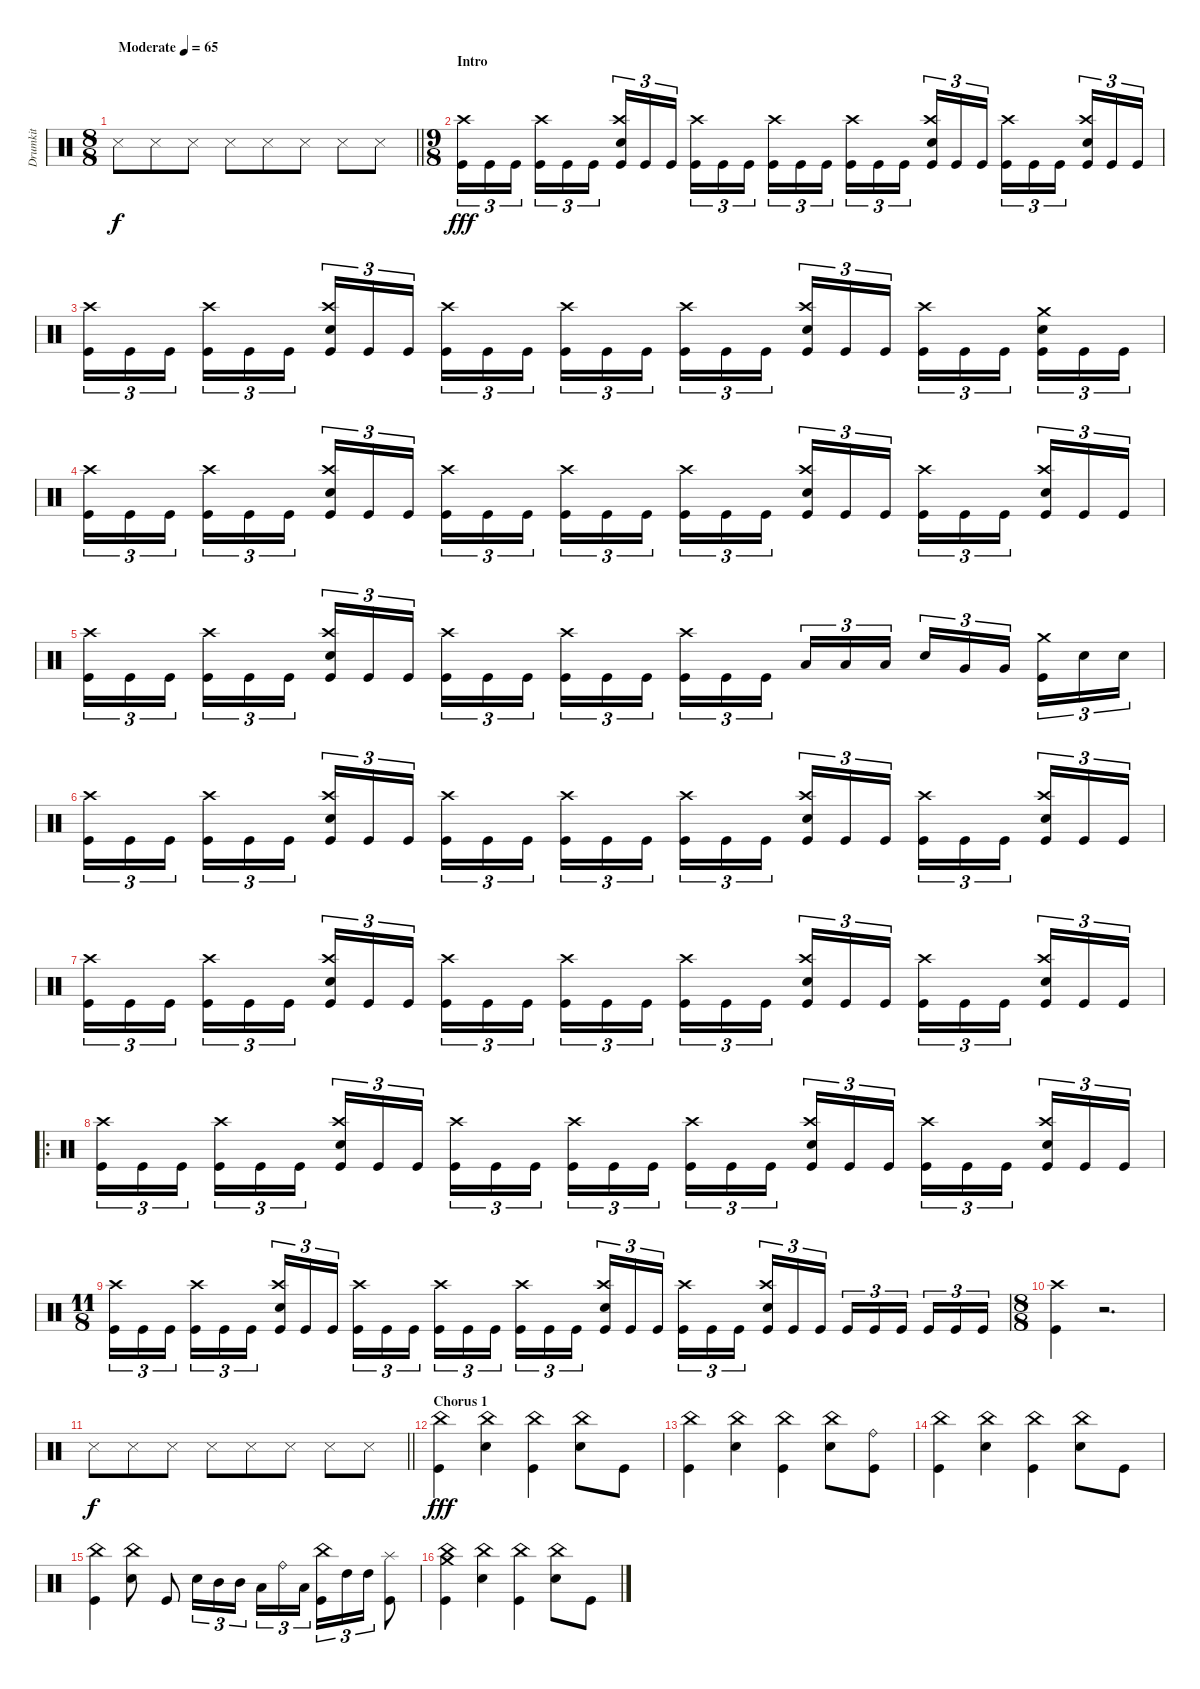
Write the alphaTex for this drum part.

\track ("Drumkit" "Drumkit") {instrument percussion}
\staff {score}
\articulation defaults
\ts (8 8)
\tempo (65 "Moderate")
\clef neutral
\barLineRight lightlight
\ks c "Snare (side stick) 3".8{dy f} "Snare (side stick) 3".8 "Snare (side stick) 3".8 "Snare (side stick) 3".8 "Snare (side stick) 3".8 "Snare (side stick) 3".8 "Snare (side stick) 3".8 "Snare (side stick) 3".8
|
\ts (9 8)
\section ("" "Intro")
("Kick (hit)" "Crash high (hit)").16{tu (3 2) dy fff} "Kick (hit)".16{tu (3 2)} "Kick (hit)".16{tu (3 2) beam splitsecondary} ("Kick (hit)" "Crash high (hit)").16{tu (3 2)} "Kick (hit)".16{tu (3 2)} "Kick (hit)".16{tu (3 2) beam splitsecondary} ("Kick (hit)" "Crash high (hit)" "Snare (hit) 2").16{tu (3 2)} "Kick (hit)".16{tu (3 2)} "Kick (hit)".16{tu (3 2)} ("Kick (hit)" "Crash high (hit)").16{tu (3 2)} "Kick (hit)".16{tu (3 2)} "Kick (hit)".16{tu (3 2) beam splitsecondary} ("Kick (hit)" "Crash high (hit)").16{tu (3 2)} "Kick (hit)".16{tu (3 2)} "Kick (hit)".16{tu (3 2) beam splitsecondary} ("Kick (hit)" "Crash high (hit)").16{tu (3 2)} "Kick (hit)".16{tu (3 2)} "Kick (hit)".16{tu (3 2)} ("Kick (hit)" "Crash high (hit)" "Snare (hit) 2").16{tu (3 2)} "Kick (hit)".16{tu (3 2)} "Kick (hit)".16{tu (3 2) beam splitsecondary} ("Kick (hit)" "Crash high (hit)").16{tu (3 2)} "Kick (hit)".16{tu (3 2)} "Kick (hit)".16{tu (3 2) beam splitsecondary} ("Kick (hit)" "Crash high (hit)" "Snare (hit) 2").16{tu (3 2)} "Kick (hit)".16{tu (3 2)} "Kick (hit)".16{tu (3 2)} |
("Kick (hit)" "Crash high (hit)").16{tu (3 2)} "Kick (hit)".16{tu (3 2)} "Kick (hit)".16{tu (3 2) beam splitsecondary} ("Kick (hit)" "Crash high (hit)").16{tu (3 2)} "Kick (hit)".16{tu (3 2)} "Kick (hit)".16{tu (3 2) beam splitsecondary} ("Kick (hit)" "Crash high (hit)" "Snare (hit) 2").16{tu (3 2)} "Kick (hit)".16{tu (3 2)} "Kick (hit)".16{tu (3 2)} ("Kick (hit)" "Crash high (hit)").16{tu (3 2)} "Kick (hit)".16{tu (3 2)} "Kick (hit)".16{tu (3 2) beam splitsecondary} ("Kick (hit)" "Crash high (hit)").16{tu (3 2)} "Kick (hit)".16{tu (3 2)} "Kick (hit)".16{tu (3 2) beam splitsecondary} ("Kick (hit)" "Crash high (hit)").16{tu (3 2)} "Kick (hit)".16{tu (3 2)} "Kick (hit)".16{tu (3 2)} ("Kick (hit)" "Crash high (hit)" "Snare (hit) 2").16{tu (3 2)} "Kick (hit)".16{tu (3 2)} "Kick (hit)".16{tu (3 2) beam splitsecondary} ("Kick (hit)" "Crash high (hit)").16{tu (3 2)} "Kick (hit)".16{tu (3 2)} "Kick (hit)".16{tu (3 2) beam splitsecondary} ("Kick (hit)" "Snare (hit) 2" "Crash medium (hit)").16{tu (3 2)} "Kick (hit)".16{tu (3 2)} "Kick (hit)".16{tu (3 2)} |
("Kick (hit)" "Crash high (hit)").16{tu (3 2)} "Kick (hit)".16{tu (3 2)} "Kick (hit)".16{tu (3 2) beam splitsecondary} ("Kick (hit)" "Crash high (hit)").16{tu (3 2)} "Kick (hit)".16{tu (3 2)} "Kick (hit)".16{tu (3 2) beam splitsecondary} ("Kick (hit)" "Crash high (hit)" "Snare (hit) 2").16{tu (3 2)} "Kick (hit)".16{tu (3 2)} "Kick (hit)".16{tu (3 2)} ("Kick (hit)" "Crash high (hit)").16{tu (3 2)} "Kick (hit)".16{tu (3 2)} "Kick (hit)".16{tu (3 2) beam splitsecondary} ("Kick (hit)" "Crash high (hit)").16{tu (3 2)} "Kick (hit)".16{tu (3 2)} "Kick (hit)".16{tu (3 2) beam splitsecondary} ("Kick (hit)" "Crash high (hit)").16{tu (3 2)} "Kick (hit)".16{tu (3 2)} "Kick (hit)".16{tu (3 2)} ("Kick (hit)" "Crash high (hit)" "Snare (hit) 2").16{tu (3 2)} "Kick (hit)".16{tu (3 2)} "Kick (hit)".16{tu (3 2) beam splitsecondary} ("Kick (hit)" "Crash high (hit)").16{tu (3 2)} "Kick (hit)".16{tu (3 2)} "Kick (hit)".16{tu (3 2) beam splitsecondary} ("Kick (hit)" "Crash high (hit)" "Snare (hit) 2").16{tu (3 2)} "Kick (hit)".16{tu (3 2)} "Kick (hit)".16{tu (3 2)} |
("Kick (hit)" "Crash high (hit)").16{tu (3 2)} "Kick (hit)".16{tu (3 2)} "Kick (hit)".16{tu (3 2) beam splitsecondary} ("Kick (hit)" "Crash high (hit)").16{tu (3 2)} "Kick (hit)".16{tu (3 2)} "Kick (hit)".16{tu (3 2) beam splitsecondary} ("Kick (hit)" "Crash high (hit)" "Snare (hit) 2").16{tu (3 2)} "Kick (hit)".16{tu (3 2)} "Kick (hit)".16{tu (3 2)} ("Kick (hit)" "Crash high (hit)").16{tu (3 2)} "Kick (hit)".16{tu (3 2)} "Kick (hit)".16{tu (3 2) beam splitsecondary} ("Kick (hit)" "Crash high (hit)").16{tu (3 2)} "Kick (hit)".16{tu (3 2)} "Kick (hit)".16{tu (3 2) beam splitsecondary} ("Kick (hit)" "Crash high (hit)").16{tu (3 2)} "Kick (hit)".16{tu (3 2)} "Kick (hit)".16{tu (3 2)} "Low Tom (hit)".16{tu (3 2)} "Low Tom (hit)".16{tu (3 2)} "Low Tom (hit)".16{tu (3 2) beam splitsecondary} "Snare (hit) 2".16{tu (3 2)} "Very Low Tom (hit)".16{tu (3 2)} "Very Low Tom (hit)".16{tu (3 2) beam splitsecondary} ("Crash medium (hit)" "Kick (hit)").16{tu (3 2)} "Snare (hit) 2".16{tu (3 2)} "Snare (hit) 2".16{tu (3 2)} |
("Kick (hit)" "Crash high (hit)").16{tu (3 2)} "Kick (hit)".16{tu (3 2)} "Kick (hit)".16{tu (3 2) beam splitsecondary} ("Kick (hit)" "Crash high (hit)").16{tu (3 2)} "Kick (hit)".16{tu (3 2)} "Kick (hit)".16{tu (3 2) beam splitsecondary} ("Kick (hit)" "Crash high (hit)" "Snare (hit) 2").16{tu (3 2)} "Kick (hit)".16{tu (3 2)} "Kick (hit)".16{tu (3 2)} ("Kick (hit)" "Crash high (hit)").16{tu (3 2)} "Kick (hit)".16{tu (3 2)} "Kick (hit)".16{tu (3 2) beam splitsecondary} ("Kick (hit)" "Crash high (hit)").16{tu (3 2)} "Kick (hit)".16{tu (3 2)} "Kick (hit)".16{tu (3 2) beam splitsecondary} ("Kick (hit)" "Crash high (hit)").16{tu (3 2)} "Kick (hit)".16{tu (3 2)} "Kick (hit)".16{tu (3 2)} ("Kick (hit)" "Crash high (hit)" "Snare (hit) 2").16{tu (3 2)} "Kick (hit)".16{tu (3 2)} "Kick (hit)".16{tu (3 2) beam splitsecondary} ("Kick (hit)" "Crash high (hit)").16{tu (3 2)} "Kick (hit)".16{tu (3 2)} "Kick (hit)".16{tu (3 2) beam splitsecondary} ("Kick (hit)" "Crash high (hit)" "Snare (hit) 2").16{tu (3 2)} "Kick (hit)".16{tu (3 2)} "Kick (hit)".16{tu (3 2)} |
("Kick (hit)" "Crash high (hit)").16{tu (3 2)} "Kick (hit)".16{tu (3 2)} "Kick (hit)".16{tu (3 2) beam splitsecondary} ("Kick (hit)" "Crash high (hit)").16{tu (3 2)} "Kick (hit)".16{tu (3 2)} "Kick (hit)".16{tu (3 2) beam splitsecondary} ("Kick (hit)" "Crash high (hit)" "Snare (hit) 2").16{tu (3 2)} "Kick (hit)".16{tu (3 2)} "Kick (hit)".16{tu (3 2)} ("Kick (hit)" "Crash high (hit)").16{tu (3 2)} "Kick (hit)".16{tu (3 2)} "Kick (hit)".16{tu (3 2) beam splitsecondary} ("Kick (hit)" "Crash high (hit)").16{tu (3 2)} "Kick (hit)".16{tu (3 2)} "Kick (hit)".16{tu (3 2) beam splitsecondary} ("Kick (hit)" "Crash high (hit)").16{tu (3 2)} "Kick (hit)".16{tu (3 2)} "Kick (hit)".16{tu (3 2)} ("Kick (hit)" "Crash high (hit)" "Snare (hit) 2").16{tu (3 2)} "Kick (hit)".16{tu (3 2)} "Kick (hit)".16{tu (3 2) beam splitsecondary} ("Kick (hit)" "Crash high (hit)").16{tu (3 2)} "Kick (hit)".16{tu (3 2)} "Kick (hit)".16{tu (3 2) beam splitsecondary} ("Kick (hit)" "Crash high (hit)" "Snare (hit) 2").16{tu (3 2)} "Kick (hit)".16{tu (3 2)} "Kick (hit)".16{tu (3 2)} |
\ro
("Kick (hit)" "Crash high (hit)").16{tu (3 2)} "Kick (hit)".16{tu (3 2)} "Kick (hit)".16{tu (3 2) beam splitsecondary} ("Kick (hit)" "Crash high (hit)").16{tu (3 2)} "Kick (hit)".16{tu (3 2)} "Kick (hit)".16{tu (3 2) beam splitsecondary} ("Kick (hit)" "Crash high (hit)" "Snare (hit) 2").16{tu (3 2)} "Kick (hit)".16{tu (3 2)} "Kick (hit)".16{tu (3 2)} ("Kick (hit)" "Crash high (hit)").16{tu (3 2)} "Kick (hit)".16{tu (3 2)} "Kick (hit)".16{tu (3 2) beam splitsecondary} ("Kick (hit)" "Crash high (hit)").16{tu (3 2)} "Kick (hit)".16{tu (3 2)} "Kick (hit)".16{tu (3 2) beam splitsecondary} ("Kick (hit)" "Crash high (hit)").16{tu (3 2)} "Kick (hit)".16{tu (3 2)} "Kick (hit)".16{tu (3 2)} ("Kick (hit)" "Crash high (hit)" "Snare (hit) 2").16{tu (3 2)} "Kick (hit)".16{tu (3 2)} "Kick (hit)".16{tu (3 2) beam splitsecondary} ("Kick (hit)" "Crash high (hit)").16{tu (3 2)} "Kick (hit)".16{tu (3 2)} "Kick (hit)".16{tu (3 2) beam splitsecondary} ("Kick (hit)" "Crash high (hit)" "Snare (hit) 2").16{tu (3 2)} "Kick (hit)".16{tu (3 2)} "Kick (hit)".16{tu (3 2)} |
\ts (11 8)
("Kick (hit)" "Crash high (hit)").16{tu (3 2)} "Kick (hit)".16{tu (3 2)} "Kick (hit)".16{tu (3 2)} ("Kick (hit)" "Crash high (hit)").16{tu (3 2)} "Kick (hit)".16{tu (3 2)} "Kick (hit)".16{tu (3 2)} ("Kick (hit)" "Crash high (hit)" "Snare (hit) 2").16{tu (3 2)} "Kick (hit)".16{tu (3 2)} "Kick (hit)".16{tu (3 2)} ("Kick (hit)" "Crash high (hit)").16{tu (3 2)} "Kick (hit)".16{tu (3 2)} "Kick (hit)".16{tu (3 2)} ("Kick (hit)" "Crash high (hit)").16{tu (3 2)} "Kick (hit)".16{tu (3 2)} "Kick (hit)".16{tu (3 2)} ("Kick (hit)" "Crash high (hit)").16{tu (3 2)} "Kick (hit)".16{tu (3 2)} "Kick (hit)".16{tu (3 2)} ("Kick (hit)" "Crash high (hit)" "Snare (hit) 2").16{tu (3 2)} "Kick (hit)".16{tu (3 2)} "Kick (hit)".16{tu (3 2)} ("Kick (hit)" "Crash high (hit)").16{tu (3 2)} "Kick (hit)".16{tu (3 2)} "Kick (hit)".16{tu (3 2)} ("Kick (hit)" "Crash high (hit)" "Snare (hit) 2").16{tu (3 2)} "Kick (hit)".16{tu (3 2)} "Kick (hit)".16{tu (3 2)} "Kick (hit)".16{tu (3 2)} "Kick (hit)".16{tu (3 2)} "Kick (hit)".16{tu (3 2)} "Kick (hit)".16{tu (3 2)} "Kick (hit)".16{tu (3 2)} "Kick (hit)".16{tu (3 2)} |
\ts (8 8)
("Kick (hit)" "Crash high (hit)").4 r.2{d} |
\barLineRight lightlight "Snare (side stick) 3".8{dy f} "Snare (side stick) 3".8 "Snare (side stick) 3".8 "Snare (side stick) 3".8 "Snare (side stick) 3".8 "Snare (side stick) 3".8 "Snare (side stick) 3".8 "Snare (side stick) 3".8
|
\section ("" "Chorus 1")
("Kick (hit)" "China (hit)").4{dy fff} ("Snare (hit) 2" "China (hit)").4 ("Kick (hit)" "China (hit)").4 ("Snare (hit) 2" "China (hit)").8 "Kick (hit)".8 |
("Kick (hit)" "China (hit)").4 ("Snare (hit) 2" "China (hit)").4 ("Kick (hit)" "China (hit)").4 ("Snare (hit) 2" "China (hit)").8 ("Kick (hit)" "Ride (bell)").8 |
("Kick (hit)" "China (hit)").4 ("Snare (hit) 2" "China (hit)").4 ("Kick (hit)" "China (hit)").4 ("Snare (hit) 2" "China (hit)").8 "Kick (hit)".8 |
("Kick (hit)" "China (hit)").4 ("China (hit)" "Snare (hit) 2").8 "Kick (hit)".8 "Snare (hit) 2".16{tu (3 2)} "Mid Tom (hit)".16{tu (3 2)} "Mid Tom (hit)".16{tu (3 2)} "Low Tom (hit)".16{tu (3 2)} "Ride (bell)".16{tu (3 2)} "Low Tom (hit)".16{tu (3 2)} ("Kick (hit)" "China (hit)").16{tu (3 2)} "High Tom (hit)".16{tu (3 2)} "High Tom (hit)".16{tu (3 2)} ("Kick (hit)" "Splash (hit)").8 |
("Kick (hit)" "China (hit)" "Crash medium (hit)").4 ("Snare (hit) 2" "China (hit)").4 ("Kick (hit)" "China (hit)").4 ("Snare (hit) 2" "China (hit)").8 "Kick (hit)".8
